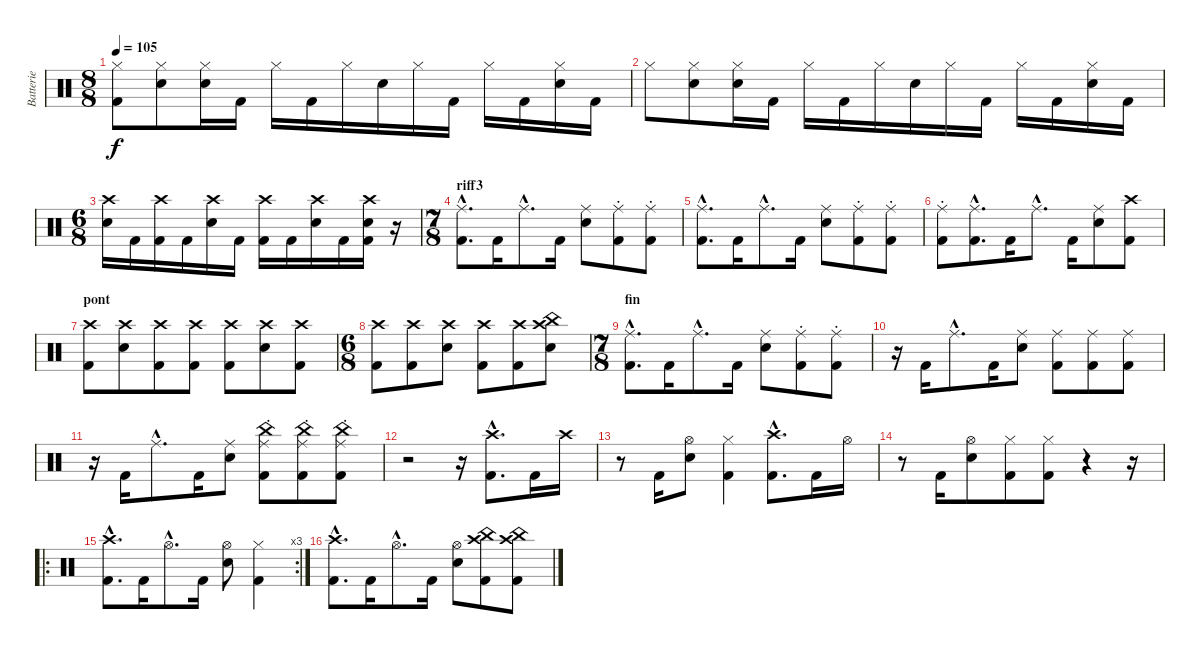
\track ("Batterie" "Batterie") {instrument percussion}
\staff {score}
\articulation defaults
\ts (8 8)
\tempo 105
\clef neutral
\ks c
("Kick (hit) 2" "Hi-Hat (closed)").8{dy f} ("Electric Snare (hit)" "Hi-Hat (closed)").8 ("Electric Snare (hit)" "Hi-Hat (closed)").16 "Kick (hit) 2".16 "Hi-Hat (closed)".16 "Kick (hit) 2".16 "Hi-Hat (closed)".16 "Electric Snare (hit)".16 "Hi-Hat (closed)".16 "Kick (hit) 2".16 "Hi-Hat (closed)".16 "Kick (hit) 2".16 ("Electric Snare (hit)" "Hi-Hat (closed)").16 "Kick (hit) 2".16 |
"Hi-Hat (closed)".8 ("Electric Snare (hit)" "Hi-Hat (closed)").8 ("Electric Snare (hit)" "Hi-Hat (closed)").16 "Kick (hit) 2".16 "Hi-Hat (closed)".16 "Kick (hit) 2".16 "Hi-Hat (closed)".16 "Electric Snare (hit)".16 "Hi-Hat (closed)".16 "Kick (hit) 2".16 "Hi-Hat (closed)".16 "Kick (hit) 2".16 ("Electric Snare (hit)" "Hi-Hat (closed)").16 "Kick (hit) 2".16 |
\ts (6 8)
("Electric Snare (hit)" "Crash high (hit)").16 "Kick (hit) 2".16 ("Kick (hit) 2" "Crash high (hit)").16 "Kick (hit) 2".16 ("Electric Snare (hit)" "Crash high (hit)").16 "Kick (hit) 2".16 ("Kick (hit) 2" "Crash high (hit)").16 "Kick (hit) 2".16 ("Electric Snare (hit)" "Crash high (hit)").16 "Kick (hit) 2".16 ("Kick (hit) 2" "Electric Snare (hit)" "Crash high (hit)").16 r.16 |
\ts (7 8)
\section ("" "riff3")
("Kick (hit) 2"{hac} "Ride (middle)"{hac}).8{d} "Kick (hit) 2".16 "Ride (middle)"{hac}.8{d} "Kick (hit) 2".16 ("Electric Snare (hit)" "Ride (middle)").8 ("Kick (hit) 2"{st} "Ride (middle)").8 ("Kick (hit) 2"{st} "Ride (middle)").8 |
("Kick (hit) 2"{hac} "Ride (middle)"{hac}).8{d} "Kick (hit) 2".16 "Ride (middle)"{hac}.8{d} "Kick (hit) 2".16 ("Electric Snare (hit)" "Ride (middle)").8 ("Kick (hit) 2"{st} "Ride (middle)").8 ("Kick (hit) 2"{st} "Ride (middle)").8 |
("Kick (hit) 2"{st} "Ride (middle)").8 ("Kick (hit) 2"{hac} "Ride (middle)"{hac}).8{d} "Kick (hit) 2".16 "Ride (middle)"{hac}.8{d} "Kick (hit) 2".16 ("Electric Snare (hit)" "Ride (middle)").8 ("Kick (hit) 2" "Crash high (hit)").8 |
\section ("" "pont")
("Kick (hit) 2" "Crash high (hit)").8 ("Electric Snare (hit)" "Crash high (hit)").8 ("Kick (hit) 2" "Crash high (hit)").8 ("Kick (hit) 2" "Crash high (hit)").8 ("Kick (hit) 2" "Crash high (hit)").8 ("Electric Snare (hit)" "Crash high (hit)").8 ("Kick (hit) 2" "Crash high (hit)").8 |
\ts (6 8)
("Kick (hit) 2" "Crash high (hit)").8 ("Kick (hit) 2" "Crash high (hit)").8 ("Electric Snare (hit)" "Crash high (hit)").8 ("Kick (hit) 2" "Crash high (hit)").8 ("Kick (hit) 2" "Crash high (hit)").8 ("Electric Snare (hit)" "China (hit)" "Crash high (hit)").8 |
\ts (7 8)
\section ("" "fin")
("Kick (hit) 2"{hac} "Ride (middle)"{hac}).8{d} "Kick (hit) 2".16 "Ride (middle)"{hac}.8{d} "Kick (hit) 2".16 ("Electric Snare (hit)" "Ride (middle)").8 ("Kick (hit) 2"{st} "Ride (middle)").8 ("Kick (hit) 2"{st} "Ride (middle)").8 |
r.16 "Kick (hit) 2".16 "Ride (middle)"{hac}.8{d} "Kick (hit) 2".16 ("Electric Snare (hit)" "Ride (middle)").8 ("Kick (hit) 2" "Ride (middle)").8 ("Kick (hit) 2" "Ride (middle)").8 ("Kick (hit) 2" "Ride (middle)").8 |
r.16 "Kick (hit) 2".16 "Ride (middle)"{hac}.8{d} "Kick (hit) 2".16 ("Electric Snare (hit)" "Ride (middle)").8 ("Kick (hit) 2"{st} "Ride (middle)" "China (hit)").8 ("Kick (hit) 2"{st} "Ride (middle)" "China (hit)").8 ("Kick (hit) 2"{st} "Ride (middle)" "China (hit)").8 |
r.2 r.16 ("Kick (hit) 2"{hac} "Crash high (hit)"{hac}).8{d} "Kick (hit) 2".16 "Crash high (hit)".16 |
r.8 "Kick (hit) 2".16 ("Electric Snare (hit)" "Hi-Hat (open)").8 ("Kick (hit) 2" "Hi-Hat (closed)").4 ("Kick (hit) 2"{hac} "Crash high (hit)"{hac}).8{d} "Kick (hit) 2".16 "Hi-Hat (open)".16 |
r.8 "Kick (hit) 2".16 ("Electric Snare (hit)" "Hi-Hat (open)").8 ("Kick (hit) 2" "Hi-Hat (closed)").8 ("Kick (hit) 2" "Hi-Hat (closed)").8 r.4 r.16 |
\ro
\rc 3
("Kick (hit) 2"{hac} "Crash high (hit)"{hac}).8{d} "Kick (hit) 2".16 "Hi-Hat (open)"{hac}.8{d} "Kick (hit) 2".16 ("Electric Snare (hit)" "Hi-Hat (open)").8 ("Kick (hit) 2" "Hi-Hat (closed)").4 |
("Kick (hit) 2"{hac} "Crash high (hit)"{hac}).8{d} "Kick (hit) 2".16 "Hi-Hat (open)"{hac}.8{d} "Kick (hit) 2".16 ("Electric Snare (hit)" "Hi-Hat (open)").8 ("Kick (hit) 2" "China (hit)" "Crash high (hit)").8 ("Kick (hit) 2" "China (hit)" "Crash high (hit)").8
